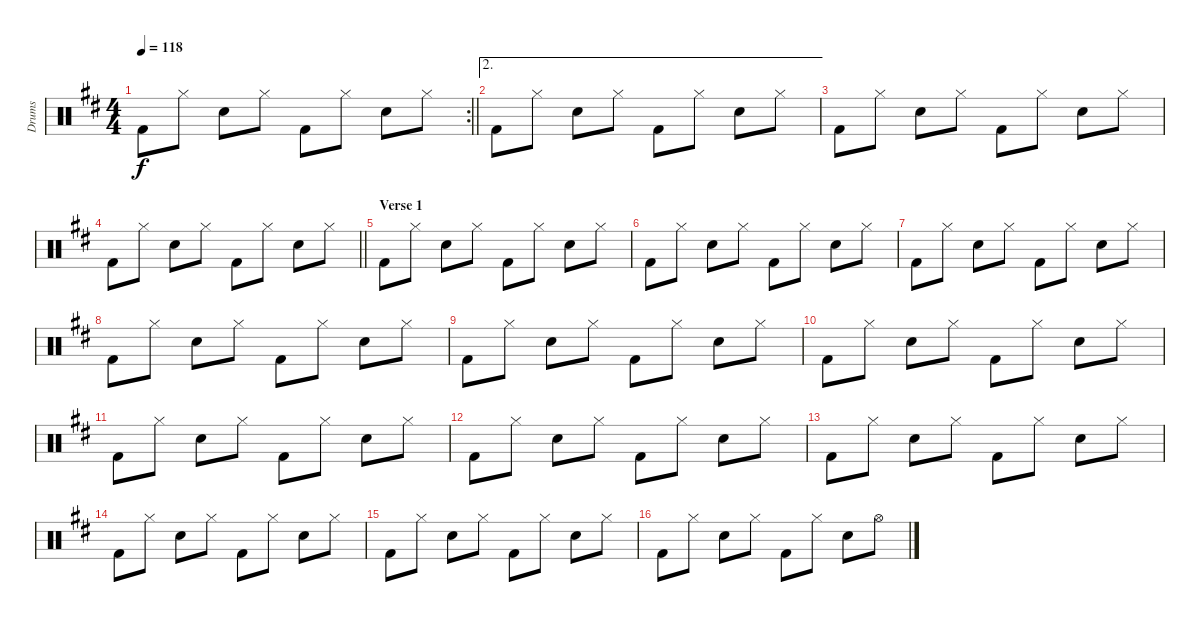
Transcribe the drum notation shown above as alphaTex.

\track ("Drums" "Drums") {instrument percussion}
\staff {score}
\articulation defaults
\rc 2
\ts (4 4)
\tempo 118
\clef neutral
\barLineRight lightlight
\ks bminor "Kick (hit) 2".8{dy f} "Hi-Hat (closed)".8 "Snare (hit) 2".8 "Hi-Hat (closed)".8 "Kick (hit) 2".8 "Hi-Hat (closed)".8 "Snare (hit) 2".8 "Hi-Hat (closed)".8
|
\ae 2 "Kick (hit) 2".8 "Hi-Hat (closed)".8 "Snare (hit) 2".8 "Hi-Hat (closed)".8 "Kick (hit) 2".8 "Hi-Hat (closed)".8 "Snare (hit) 2".8 "Hi-Hat (closed)".8
|
"Kick (hit) 2".8 "Hi-Hat (closed)".8 "Snare (hit) 2".8 "Hi-Hat (closed)".8 "Kick (hit) 2".8 "Hi-Hat (closed)".8 "Snare (hit) 2".8 "Hi-Hat (closed)".8 |
\barLineRight lightlight "Kick (hit) 2".8 "Hi-Hat (closed)".8 "Snare (hit) 2".8 "Hi-Hat (closed)".8 "Kick (hit) 2".8 "Hi-Hat (closed)".8 "Snare (hit) 2".8 "Hi-Hat (closed)".8
|
\section ("" "Verse 1")
"Kick (hit) 2".8 "Hi-Hat (closed)".8 "Snare (hit) 2".8 "Hi-Hat (closed)".8 "Kick (hit) 2".8 "Hi-Hat (closed)".8 "Snare (hit) 2".8 "Hi-Hat (closed)".8 |
"Kick (hit) 2".8 "Hi-Hat (closed)".8 "Snare (hit) 2".8 "Hi-Hat (closed)".8 "Kick (hit) 2".8 "Hi-Hat (closed)".8 "Snare (hit) 2".8 "Hi-Hat (closed)".8 |
"Kick (hit) 2".8 "Hi-Hat (closed)".8 "Snare (hit) 2".8 "Hi-Hat (closed)".8 "Kick (hit) 2".8 "Hi-Hat (closed)".8 "Snare (hit) 2".8 "Hi-Hat (closed)".8 |
"Kick (hit) 2".8 "Hi-Hat (closed)".8 "Snare (hit) 2".8 "Hi-Hat (closed)".8 "Kick (hit) 2".8 "Hi-Hat (closed)".8 "Snare (hit) 2".8 "Hi-Hat (closed)".8 |
"Kick (hit) 2".8 "Hi-Hat (closed)".8 "Snare (hit) 2".8 "Hi-Hat (closed)".8 "Kick (hit) 2".8 "Hi-Hat (closed)".8 "Snare (hit) 2".8 "Hi-Hat (closed)".8 |
"Kick (hit) 2".8 "Hi-Hat (closed)".8 "Snare (hit) 2".8 "Hi-Hat (closed)".8 "Kick (hit) 2".8 "Hi-Hat (closed)".8 "Snare (hit) 2".8 "Hi-Hat (closed)".8 |
"Kick (hit) 2".8 "Hi-Hat (closed)".8 "Snare (hit) 2".8 "Hi-Hat (closed)".8 "Kick (hit) 2".8 "Hi-Hat (closed)".8 "Snare (hit) 2".8 "Hi-Hat (closed)".8 |
"Kick (hit) 2".8 "Hi-Hat (closed)".8 "Snare (hit) 2".8 "Hi-Hat (closed)".8 "Kick (hit) 2".8 "Hi-Hat (closed)".8 "Snare (hit) 2".8 "Hi-Hat (closed)".8 |
"Kick (hit) 2".8 "Hi-Hat (closed)".8 "Snare (hit) 2".8 "Hi-Hat (closed)".8 "Kick (hit) 2".8 "Hi-Hat (closed)".8 "Snare (hit) 2".8 "Hi-Hat (closed)".8 |
"Kick (hit) 2".8 "Hi-Hat (closed)".8 "Snare (hit) 2".8 "Hi-Hat (closed)".8 "Kick (hit) 2".8 "Hi-Hat (closed)".8 "Snare (hit) 2".8 "Hi-Hat (closed)".8 |
"Kick (hit) 2".8 "Hi-Hat (closed)".8 "Snare (hit) 2".8 "Hi-Hat (closed)".8 "Kick (hit) 2".8 "Hi-Hat (closed)".8 "Snare (hit) 2".8 "Hi-Hat (closed)".8 |
"Kick (hit) 2".8 "Hi-Hat (closed)".8 "Snare (hit) 2".8 "Hi-Hat (closed)".8 "Kick (hit) 2".8 "Hi-Hat (closed)".8 "Snare (hit) 2".8 "Hi-Hat (open)".8
